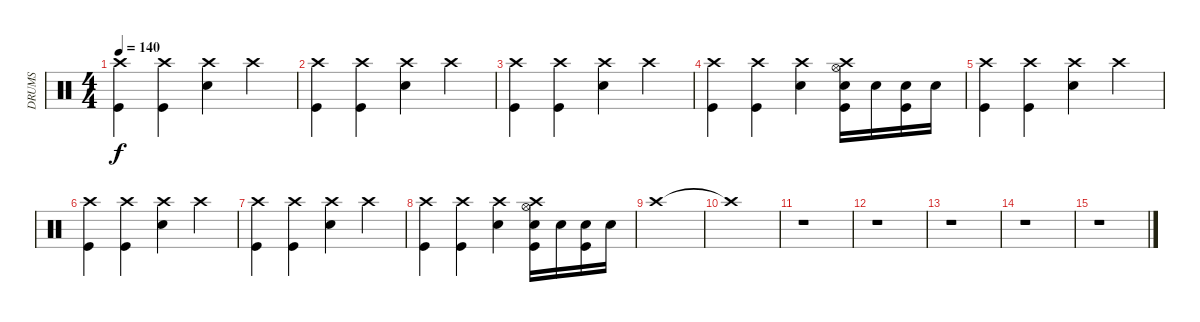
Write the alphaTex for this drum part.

\track ("DRUMS" "DRUMS") {instrument percussion}
\staff {score}
\articulation defaults
\ts (4 4)
\tempo 140
\clef neutral
\ks c
("Crash high (hit)" "Kick (hit)").4{dy f} ("Crash high (hit)" "Kick (hit)").4 ("Crash high (hit)" "Electric Snare (hit)").4 "Crash high (hit)".4 |
("Crash high (hit)" "Kick (hit)").4 ("Crash high (hit)" "Kick (hit)").4 ("Crash high (hit)" "Electric Snare (hit)").4 "Crash high (hit)".4 |
("Crash high (hit)" "Kick (hit)").4 ("Crash high (hit)" "Kick (hit)").4 ("Crash high (hit)" "Electric Snare (hit)").4 "Crash high (hit)".4 |
("Crash high (hit)" "Kick (hit)").4 ("Crash high (hit)" "Kick (hit)").4 ("Crash high (hit)" "Electric Snare (hit)").4 ("Crash high (hit)" "Electric Snare (hit)" "Kick (hit)" "Hi-Hat (open)").16 "Electric Snare (hit)".16 ("Electric Snare (hit)" "Kick (hit)").16 "Electric Snare (hit)".16 |
("Crash high (hit)" "Kick (hit)").4 ("Crash high (hit)" "Kick (hit)").4 ("Crash high (hit)" "Electric Snare (hit)").4 "Crash high (hit)".4 |
("Crash high (hit)" "Kick (hit)").4 ("Crash high (hit)" "Kick (hit)").4 ("Crash high (hit)" "Electric Snare (hit)").4 "Crash high (hit)".4 |
("Crash high (hit)" "Kick (hit)").4 ("Crash high (hit)" "Kick (hit)").4 ("Crash high (hit)" "Electric Snare (hit)").4 "Crash high (hit)".4 |
("Crash high (hit)" "Kick (hit)").4 ("Crash high (hit)" "Kick (hit)").4 ("Crash high (hit)" "Electric Snare (hit)").4 ("Crash high (hit)" "Electric Snare (hit)" "Kick (hit)" "Hi-Hat (open)").16 "Electric Snare (hit)".16 ("Electric Snare (hit)" "Kick (hit)").16 "Electric Snare (hit)".16 |
"Crash high (hit)".1 |
"Crash high (hit)"{t}.1 |
r.1 |
r.1 |
r.1 |
r.1 |
r.1
